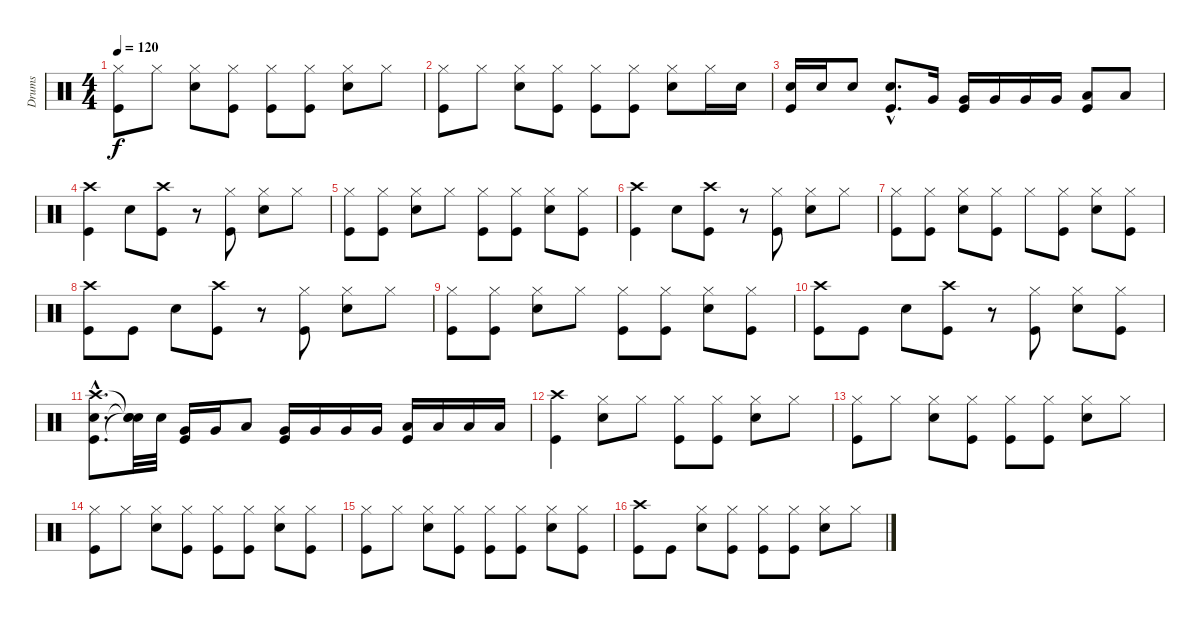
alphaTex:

\track ("Drums" "Drums") {instrument percussion}
\staff {score}
\articulation defaults
\ts (4 4)
\tempo 120
\clef neutral
\ks c
("Hi-Hat (closed)" "Kick (hit)").8{dy f} "Hi-Hat (closed)".8 ("Hi-Hat (closed)" "Snare (hit) 2").8 ("Hi-Hat (closed)" "Kick (hit)").8 ("Hi-Hat (closed)" "Kick (hit)").8 ("Hi-Hat (closed)" "Kick (hit)").8 ("Hi-Hat (closed)" "Snare (hit) 2").8 "Hi-Hat (closed)".8 |
("Hi-Hat (closed)" "Kick (hit)").8 "Hi-Hat (closed)".8 ("Hi-Hat (closed)" "Snare (hit) 2").8 ("Hi-Hat (closed)" "Kick (hit)").8 ("Hi-Hat (closed)" "Kick (hit)").8 ("Hi-Hat (closed)" "Kick (hit)").8 ("Hi-Hat (closed)" "Snare (hit) 2").8 "Hi-Hat (closed)".16 "Snare (hit) 2".16 |
("Snare (hit) 2" "Kick (hit)").16 "Snare (hit) 2".16 "Snare (hit) 2".8 ("Snare (hit) 2"{hac} "Kick (hit)"{hac}).8{d} "Very Low Tom (hit)".16 ("Kick (hit)" "Very Low Tom (hit)").16 "Very Low Tom (hit)".16 "Very Low Tom (hit)".16 "Very Low Tom (hit)".16 ("Kick (hit)" "Low Floor Tom (hit)").8 "Low Floor Tom (hit)".8 |
("Crash high (hit)" "Kick (hit)").4 "Snare (hit) 2".8 ("Crash high (hit)" "Kick (hit)").8 r.8 ("Hi-Hat (closed)" "Kick (hit)").8 ("Hi-Hat (closed)" "Snare (hit) 2").8 "Hi-Hat (closed)".8 |
("Hi-Hat (closed)" "Kick (hit)").8 ("Hi-Hat (closed)" "Kick (hit)").8 ("Hi-Hat (closed)" "Snare (hit) 2").8 "Hi-Hat (closed)".8 ("Hi-Hat (closed)" "Kick (hit)").8 ("Hi-Hat (closed)" "Kick (hit)").8 ("Hi-Hat (closed)" "Snare (hit) 2").8 ("Hi-Hat (closed)" "Kick (hit)").8 |
("Crash high (hit)" "Kick (hit)").4 "Snare (hit) 2".8 ("Crash high (hit)" "Kick (hit)").8 r.8 ("Hi-Hat (closed)" "Kick (hit)").8 ("Hi-Hat (closed)" "Snare (hit) 2").8 "Hi-Hat (closed)".8 |
("Hi-Hat (closed)" "Kick (hit)").8 ("Hi-Hat (closed)" "Kick (hit)").8 ("Hi-Hat (closed)" "Snare (hit) 2").8 ("Hi-Hat (closed)" "Kick (hit)").8 "Hi-Hat (closed)".8 ("Hi-Hat (closed)" "Kick (hit)").8 ("Hi-Hat (closed)" "Snare (hit) 2").8 ("Hi-Hat (closed)" "Kick (hit)").8 |
("Crash high (hit)" "Kick (hit)").8 "Kick (hit)".8 "Snare (hit) 2".8 ("Crash high (hit)" "Kick (hit)").8 r.8 ("Hi-Hat (closed)" "Kick (hit)").8 ("Hi-Hat (closed)" "Snare (hit) 2").8 "Hi-Hat (closed)".8 |
("Hi-Hat (closed)" "Kick (hit)").8 ("Hi-Hat (closed)" "Kick (hit)").8 ("Hi-Hat (closed)" "Snare (hit) 2").8 "Hi-Hat (closed)".8 ("Hi-Hat (closed)" "Kick (hit)").8 ("Hi-Hat (closed)" "Kick (hit)").8 ("Hi-Hat (closed)" "Snare (hit) 2").8 ("Hi-Hat (closed)" "Kick (hit)").8 |
("Crash high (hit)" "Kick (hit)").8 "Kick (hit)".8 "Snare (hit) 2".8 ("Crash high (hit)" "Kick (hit)").8 r.8 ("Hi-Hat (closed)" "Kick (hit)").8 ("Hi-Hat (closed)" "Snare (hit) 2").8 ("Hi-Hat (closed)" "Kick (hit)").8 |
("Crash high (hit)"{hac} "Snare (hit) 2"{hac} "Kick (hit)"{hac}).8{d} ("Snare (hit)"{t} "Snare (hit)"{t} "Snare (hit)"{t}).32 "Snare (hit) 2".32 ("Kick (hit)" "Very Low Tom (hit)").16 "Very Low Tom (hit)".16 "Low Floor Tom (hit)".8 ("Kick (hit)" "Very Low Tom (hit)").16 "Very Low Tom (hit)".16 "Very Low Tom (hit)".16 "Very Low Tom (hit)".16 ("Kick (hit)" "Low Floor Tom (hit)").16 "Low Floor Tom (hit)".16 "Low Floor Tom (hit)".16 "Low Floor Tom (hit)".16 |
("Crash high (hit)" "Kick (hit)").4 ("Hi-Hat (closed)" "Snare (hit) 2").8 "Hi-Hat (closed)".8 ("Hi-Hat (closed)" "Kick (hit)").8 ("Hi-Hat (closed)" "Kick (hit)").8 ("Hi-Hat (closed)" "Snare (hit) 2").8 "Hi-Hat (closed)".8 |
("Hi-Hat (closed)" "Kick (hit)").8 "Hi-Hat (closed)".8 ("Hi-Hat (closed)" "Snare (hit) 2").8 ("Hi-Hat (closed)" "Kick (hit)").8 ("Hi-Hat (closed)" "Kick (hit)").8 ("Hi-Hat (closed)" "Kick (hit)").8 ("Hi-Hat (closed)" "Snare (hit) 2").8 "Hi-Hat (closed)".8 |
("Hi-Hat (closed)" "Kick (hit)").8 "Hi-Hat (closed)".8 ("Hi-Hat (closed)" "Snare (hit) 2").8 ("Hi-Hat (closed)" "Kick (hit)").8 ("Hi-Hat (closed)" "Kick (hit)").8 ("Hi-Hat (closed)" "Kick (hit)").8 ("Hi-Hat (closed)" "Snare (hit) 2").8 ("Hi-Hat (closed)" "Kick (hit)").8 |
("Hi-Hat (closed)" "Kick (hit)").8 "Hi-Hat (closed)".8 ("Hi-Hat (closed)" "Snare (hit) 2").8 ("Hi-Hat (closed)" "Kick (hit)").8 ("Hi-Hat (closed)" "Kick (hit)").8 ("Hi-Hat (closed)" "Kick (hit)").8 ("Hi-Hat (closed)" "Snare (hit) 2").8 ("Hi-Hat (closed)" "Kick (hit)").8 |
("Crash high (hit)" "Kick (hit)").8 "Kick (hit)".8 ("Hi-Hat (closed)" "Snare (hit) 2").8 ("Hi-Hat (closed)" "Kick (hit)").8 ("Hi-Hat (closed)" "Kick (hit)").8 ("Hi-Hat (closed)" "Kick (hit)").8 ("Hi-Hat (closed)" "Snare (hit) 2").8 "Hi-Hat (closed)".8
